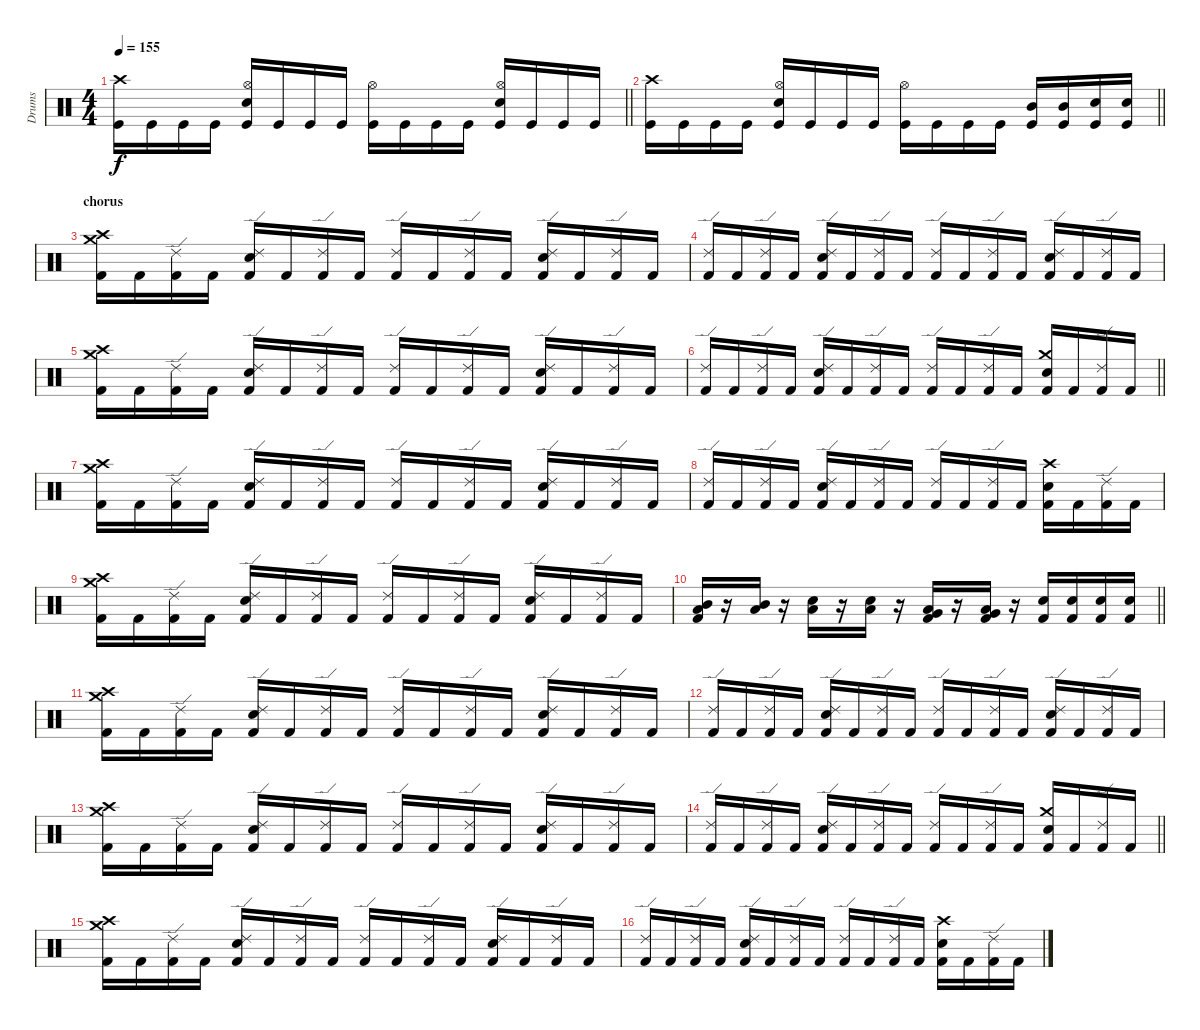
\track ("Drums" "Drums") {instrument percussion}
\staff {score}
\articulation defaults
\ts (4 4)
\tempo 155
\clef neutral
\barLineRight lightlight
\ks c
("Crash high (hit)" "Kick (hit)").16{dy f} "Kick (hit)".16 "Kick (hit)".16 "Kick (hit)".16 ("Hi-Hat (open)" "Snare (hit) 2" "Kick (hit)").16 "Kick (hit)".16 "Kick (hit)".16 "Kick (hit)".16 ("Hi-Hat (open)" "Kick (hit)").16 "Kick (hit)".16 "Kick (hit)".16 "Kick (hit)".16 ("Hi-Hat (open)" "Snare (hit) 2" "Kick (hit)").16 "Kick (hit)".16 "Kick (hit)".16 "Kick (hit)".16 |
\barLineRight lightlight
("Crash high (hit)" "Kick (hit)").16 "Kick (hit)".16 "Kick (hit)".16 "Kick (hit)".16 ("Hi-Hat (open)" "Snare (hit) 2" "Kick (hit)").16 "Kick (hit)".16 "Kick (hit)".16 "Kick (hit)".16 ("Hi-Hat (open)" "Kick (hit)").16 "Kick (hit)".16 "Kick (hit)".16 "Kick (hit)".16 ("Mid Tom (hit)" "Kick (hit)").16 ("Mid Tom (hit)" "Kick (hit)").16 ("Electric Snare (hit)" "Kick (hit)").16 ("Electric Snare (hit)" "Kick (hit)").16 |
\section ("" "chorus")
("Crash high (hit)" "Crash medium (hit)" "Kick (hit) 2").16 "Kick (hit) 2".16 ("Ride (edge) 2" "Kick (hit) 2").16 "Kick (hit) 2".16 ("Ride (edge) 2" "Electric Snare (hit)" "Kick (hit) 2").16 "Kick (hit) 2".16 ("Ride (edge) 2" "Kick (hit) 2").16 "Kick (hit) 2".16 ("Ride (edge) 2" "Kick (hit) 2").16 "Kick (hit) 2".16 ("Ride (edge) 2" "Kick (hit) 2").16 "Kick (hit) 2".16 ("Ride (edge) 2" "Electric Snare (hit)" "Kick (hit) 2").16 "Kick (hit) 2".16 ("Ride (edge) 2" "Kick (hit) 2").16 "Kick (hit) 2".16 |
("Ride (edge) 2" "Kick (hit) 2").16 "Kick (hit) 2".16 ("Ride (edge) 2" "Kick (hit) 2").16 "Kick (hit) 2".16 ("Ride (edge) 2" "Electric Snare (hit)" "Kick (hit) 2").16 "Kick (hit) 2".16 ("Ride (edge) 2" "Kick (hit) 2").16 "Kick (hit) 2".16 ("Ride (edge) 2" "Kick (hit) 2").16 "Kick (hit) 2".16 ("Ride (edge) 2" "Kick (hit) 2").16 "Kick (hit) 2".16 ("Ride (edge) 2" "Electric Snare (hit)" "Kick (hit) 2").16 "Kick (hit) 2".16 ("Ride (edge) 2" "Kick (hit) 2").16 "Kick (hit) 2".16 |
("Crash high (hit)" "Crash medium (hit)" "Kick (hit) 2").16 "Kick (hit) 2".16 ("Ride (edge) 2" "Kick (hit) 2").16 "Kick (hit) 2".16 ("Ride (edge) 2" "Electric Snare (hit)" "Kick (hit) 2").16 "Kick (hit) 2".16 ("Ride (edge) 2" "Kick (hit) 2").16 "Kick (hit) 2".16 ("Ride (edge) 2" "Kick (hit) 2").16 "Kick (hit) 2".16 ("Ride (edge) 2" "Kick (hit) 2").16 "Kick (hit) 2".16 ("Ride (edge) 2" "Electric Snare (hit)" "Kick (hit) 2").16 "Kick (hit) 2".16 ("Ride (edge) 2" "Kick (hit) 2").16 "Kick (hit) 2".16 |
\barLineRight lightlight
("Ride (edge) 2" "Kick (hit) 2").16 "Kick (hit) 2".16 ("Ride (edge) 2" "Kick (hit) 2").16 "Kick (hit) 2".16 ("Ride (edge) 2" "Electric Snare (hit)" "Kick (hit) 2").16 "Kick (hit) 2".16 ("Ride (edge) 2" "Kick (hit) 2").16 "Kick (hit) 2".16 ("Ride (edge) 2" "Kick (hit) 2").16 "Kick (hit) 2".16 ("Ride (edge) 2" "Kick (hit) 2").16 "Kick (hit) 2".16 ("Crash medium (hit)" "Electric Snare (hit)" "Kick (hit) 2").16 "Kick (hit) 2".16 ("Ride (edge) 2" "Kick (hit) 2").16 "Kick (hit) 2".16 |
("Crash high (hit)" "Crash medium (hit)" "Kick (hit) 2").16 "Kick (hit) 2".16 ("Ride (edge) 2" "Kick (hit) 2").16 "Kick (hit) 2".16 ("Ride (edge) 2" "Electric Snare (hit)" "Kick (hit) 2").16 "Kick (hit) 2".16 ("Ride (edge) 2" "Kick (hit) 2").16 "Kick (hit) 2".16 ("Ride (edge) 2" "Kick (hit) 2").16 "Kick (hit) 2".16 ("Ride (edge) 2" "Kick (hit) 2").16 "Kick (hit) 2".16 ("Ride (edge) 2" "Electric Snare (hit)" "Kick (hit) 2").16 "Kick (hit) 2".16 ("Ride (edge) 2" "Kick (hit) 2").16 "Kick (hit) 2".16 |
("Ride (edge) 2" "Kick (hit) 2").16 "Kick (hit) 2".16 ("Ride (edge) 2" "Kick (hit) 2").16 "Kick (hit) 2".16 ("Ride (edge) 2" "Electric Snare (hit)" "Kick (hit) 2").16 "Kick (hit) 2".16 ("Ride (edge) 2" "Kick (hit) 2").16 "Kick (hit) 2".16 ("Ride (edge) 2" "Kick (hit) 2").16 "Kick (hit) 2".16 ("Ride (edge) 2" "Kick (hit) 2").16 "Kick (hit) 2".16 ("Crash high (hit)" "Electric Snare (hit)" "Kick (hit) 2").16 "Kick (hit) 2".16 ("Ride (edge) 2" "Kick (hit) 2").16 "Kick (hit) 2".16 |
("Crash high (hit)" "Crash medium (hit)" "Kick (hit) 2").16 "Kick (hit) 2".16 ("Ride (edge) 2" "Kick (hit) 2").16 "Kick (hit) 2".16 ("Ride (edge) 2" "Electric Snare (hit)" "Kick (hit) 2").16 "Kick (hit) 2".16 ("Ride (edge) 2" "Kick (hit) 2").16 "Kick (hit) 2".16 ("Ride (edge) 2" "Kick (hit) 2").16 "Kick (hit) 2".16 ("Ride (edge) 2" "Kick (hit) 2").16 "Kick (hit) 2".16 ("Ride (edge) 2" "Electric Snare (hit)" "Kick (hit) 2").16 "Kick (hit) 2".16 ("Ride (edge) 2" "Kick (hit) 2").16 "Kick (hit) 2".16 |
\barLineRight lightlight
("Mid Tom (hit)" "Low Tom (hit)" "Kick (hit) 2").16 r.16 ("Mid Tom (hit)" "Low Tom (hit)").16 r.16 ("Low Tom (hit)" "Electric Snare (hit)").16 r.16 ("Low Tom (hit)" "Electric Snare (hit)").16 r.16 ("Low Tom (hit)" "Very Low Tom (hit)" "Kick (hit) 2").16 r.16 ("Low Tom (hit)" "Very Low Tom (hit)" "Kick (hit) 2").16 r.16 ("Electric Snare (hit)" "Kick (hit) 2").16 ("Electric Snare (hit)" "Kick (hit) 2").16 ("Electric Snare (hit)" "Kick (hit) 2").16 ("Electric Snare (hit)" "Kick (hit) 2").16 |
("Crash high (hit)" "Crash medium (hit)" "Kick (hit) 2").16 "Kick (hit) 2".16 ("Ride (edge) 2" "Kick (hit) 2").16 "Kick (hit) 2".16 ("Ride (edge) 2" "Electric Snare (hit)" "Kick (hit) 2").16 "Kick (hit) 2".16 ("Ride (edge) 2" "Kick (hit) 2").16 "Kick (hit) 2".16 ("Ride (edge) 2" "Kick (hit) 2").16 "Kick (hit) 2".16 ("Ride (edge) 2" "Kick (hit) 2").16 "Kick (hit) 2".16 ("Ride (edge) 2" "Electric Snare (hit)" "Kick (hit) 2").16 "Kick (hit) 2".16 ("Ride (edge) 2" "Kick (hit) 2").16 "Kick (hit) 2".16 |
("Ride (edge) 2" "Kick (hit) 2").16 "Kick (hit) 2".16 ("Ride (edge) 2" "Kick (hit) 2").16 "Kick (hit) 2".16 ("Ride (edge) 2" "Electric Snare (hit)" "Kick (hit) 2").16 "Kick (hit) 2".16 ("Ride (edge) 2" "Kick (hit) 2").16 "Kick (hit) 2".16 ("Ride (edge) 2" "Kick (hit) 2").16 "Kick (hit) 2".16 ("Ride (edge) 2" "Kick (hit) 2").16 "Kick (hit) 2".16 ("Ride (edge) 2" "Electric Snare (hit)" "Kick (hit) 2").16 "Kick (hit) 2".16 ("Ride (edge) 2" "Kick (hit) 2").16 "Kick (hit) 2".16 |
("Crash high (hit)" "Crash medium (hit)" "Kick (hit) 2").16 "Kick (hit) 2".16 ("Ride (edge) 2" "Kick (hit) 2").16 "Kick (hit) 2".16 ("Ride (edge) 2" "Electric Snare (hit)" "Kick (hit) 2").16 "Kick (hit) 2".16 ("Ride (edge) 2" "Kick (hit) 2").16 "Kick (hit) 2".16 ("Ride (edge) 2" "Kick (hit) 2").16 "Kick (hit) 2".16 ("Ride (edge) 2" "Kick (hit) 2").16 "Kick (hit) 2".16 ("Ride (edge) 2" "Electric Snare (hit)" "Kick (hit) 2").16 "Kick (hit) 2".16 ("Ride (edge) 2" "Kick (hit) 2").16 "Kick (hit) 2".16 |
\barLineRight lightlight
("Ride (edge) 2" "Kick (hit) 2").16 "Kick (hit) 2".16 ("Ride (edge) 2" "Kick (hit) 2").16 "Kick (hit) 2".16 ("Ride (edge) 2" "Electric Snare (hit)" "Kick (hit) 2").16 "Kick (hit) 2".16 ("Ride (edge) 2" "Kick (hit) 2").16 "Kick (hit) 2".16 ("Ride (edge) 2" "Kick (hit) 2").16 "Kick (hit) 2".16 ("Ride (edge) 2" "Kick (hit) 2").16 "Kick (hit) 2".16 ("Crash medium (hit)" "Electric Snare (hit)" "Kick (hit) 2").16 "Kick (hit) 2".16 ("Ride (edge) 2" "Kick (hit) 2").16 "Kick (hit) 2".16 |
("Crash high (hit)" "Crash medium (hit)" "Kick (hit) 2").16 "Kick (hit) 2".16 ("Ride (edge) 2" "Kick (hit) 2").16 "Kick (hit) 2".16 ("Ride (edge) 2" "Electric Snare (hit)" "Kick (hit) 2").16 "Kick (hit) 2".16 ("Ride (edge) 2" "Kick (hit) 2").16 "Kick (hit) 2".16 ("Ride (edge) 2" "Kick (hit) 2").16 "Kick (hit) 2".16 ("Ride (edge) 2" "Kick (hit) 2").16 "Kick (hit) 2".16 ("Ride (edge) 2" "Electric Snare (hit)" "Kick (hit) 2").16 "Kick (hit) 2".16 ("Ride (edge) 2" "Kick (hit) 2").16 "Kick (hit) 2".16 |
("Ride (edge) 2" "Kick (hit) 2").16 "Kick (hit) 2".16 ("Ride (edge) 2" "Kick (hit) 2").16 "Kick (hit) 2".16 ("Ride (edge) 2" "Electric Snare (hit)" "Kick (hit) 2").16 "Kick (hit) 2".16 ("Ride (edge) 2" "Kick (hit) 2").16 "Kick (hit) 2".16 ("Ride (edge) 2" "Kick (hit) 2").16 "Kick (hit) 2".16 ("Ride (edge) 2" "Kick (hit) 2").16 "Kick (hit) 2".16 ("Crash high (hit)" "Electric Snare (hit)" "Kick (hit) 2").16 "Kick (hit) 2".16 ("Ride (edge) 2" "Kick (hit) 2").16 "Kick (hit) 2".16
